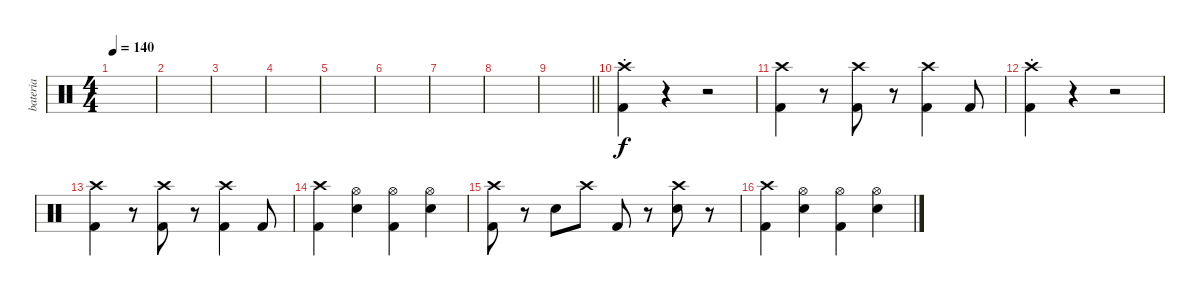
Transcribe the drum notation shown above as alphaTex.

\track ("bateria" "bateria") {instrument percussion}
\staff {score}
\articulation defaults
\ts (4 4)
\tempo 140
\clef neutral
\ks c
|
|
|
|
|
|
|
|
\barLineRight lightlight
|
("Crash high (hit)"{st} "Kick (hit) 2"{st}).4 r.4 r.2 |
("Crash high (hit)" "Kick (hit) 2").4 r.8 ("Crash high (hit)" "Kick (hit) 2").8 r.8 ("Crash high (hit)" "Kick (hit) 2").4 "Kick (hit) 2".8 |
("Crash high (hit)" "Kick (hit) 2"{st}).4 r.4 r.2 |
("Crash high (hit)" "Kick (hit) 2").4 r.8 ("Crash high (hit)" "Kick (hit) 2").8 r.8 ("Crash high (hit)" "Kick (hit) 2").4 "Kick (hit) 2".8 |
("Crash high (hit)" "Kick (hit) 2").4 ("Hi-Hat (open)" "Snare (hit) 2").4 ("Hi-Hat (open)" "Kick (hit) 2").4 ("Hi-Hat (open)" "Snare (hit) 2").4 |
("Crash high (hit)" "Kick (hit) 2").8 r.8 "Snare (hit) 2".8 "Crash high (hit)".8 "Kick (hit) 2".8 r.8 ("Crash high (hit)" "Snare (hit) 2").8 r.8 |
("Crash high (hit)" "Kick (hit) 2").4 ("Hi-Hat (open)" "Snare (hit) 2").4 ("Hi-Hat (open)" "Kick (hit) 2").4 ("Hi-Hat (open)" "Snare (hit) 2").4
